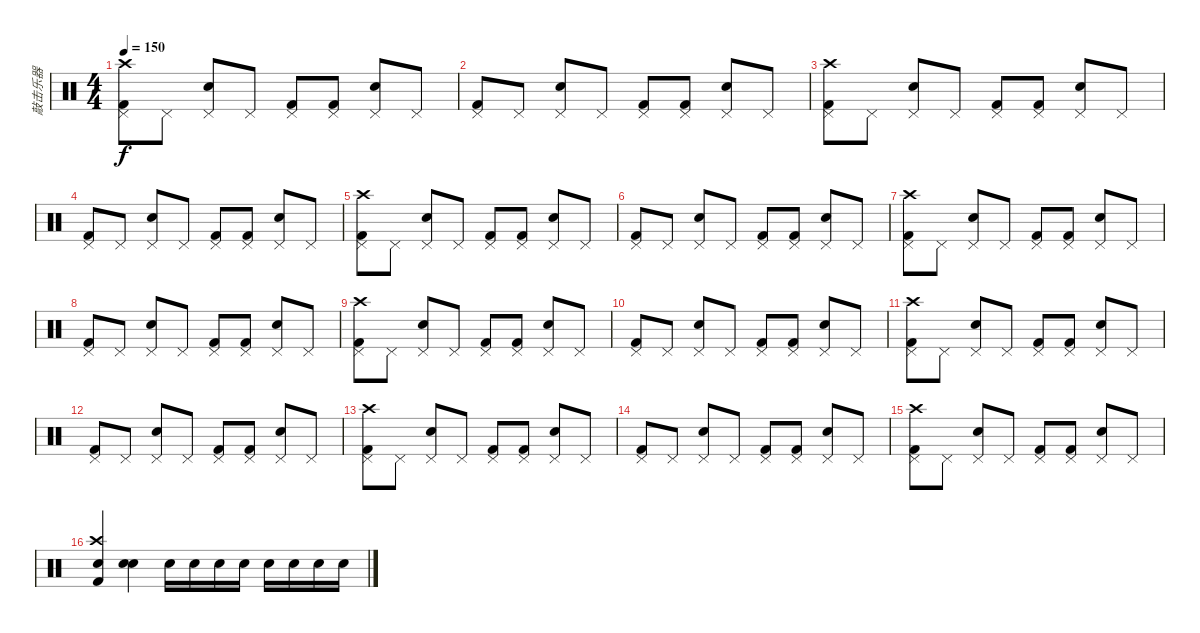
\track ("敲击乐器" "敲击乐器") {instrument percussion}
\staff {score}
\articulation defaults
\ts (4 4)
\tempo 150
\clef neutral
\ks c
("Kick (hit) 2" "Pedal Hi-Hat (hit)" "Crash high (hit)").8{dy f} "Pedal Hi-Hat (hit)".8 ("Snare (hit) 2" "Pedal Hi-Hat (hit)").8 "Pedal Hi-Hat (hit)".8 ("Kick (hit) 2" "Pedal Hi-Hat (hit)").8 ("Kick (hit) 2" "Pedal Hi-Hat (hit)").8 ("Snare (hit) 2" "Pedal Hi-Hat (hit)").8 "Pedal Hi-Hat (hit)".8 |
("Kick (hit) 2" "Pedal Hi-Hat (hit)").8 "Pedal Hi-Hat (hit)".8 ("Snare (hit) 2" "Pedal Hi-Hat (hit)").8 "Pedal Hi-Hat (hit)".8 ("Kick (hit) 2" "Pedal Hi-Hat (hit)").8 ("Kick (hit) 2" "Pedal Hi-Hat (hit)").8 ("Snare (hit) 2" "Pedal Hi-Hat (hit)").8 "Pedal Hi-Hat (hit)".8 |
("Kick (hit) 2" "Pedal Hi-Hat (hit)" "Crash high (hit)").8 "Pedal Hi-Hat (hit)".8 ("Snare (hit) 2" "Pedal Hi-Hat (hit)").8 "Pedal Hi-Hat (hit)".8 ("Kick (hit) 2" "Pedal Hi-Hat (hit)").8 ("Kick (hit) 2" "Pedal Hi-Hat (hit)").8 ("Snare (hit) 2" "Pedal Hi-Hat (hit)").8 "Pedal Hi-Hat (hit)".8 |
("Kick (hit) 2" "Pedal Hi-Hat (hit)").8 "Pedal Hi-Hat (hit)".8 ("Snare (hit) 2" "Pedal Hi-Hat (hit)").8 "Pedal Hi-Hat (hit)".8 ("Kick (hit) 2" "Pedal Hi-Hat (hit)").8 ("Kick (hit) 2" "Pedal Hi-Hat (hit)").8 ("Snare (hit) 2" "Pedal Hi-Hat (hit)").8 "Pedal Hi-Hat (hit)".8 |
("Kick (hit) 2" "Pedal Hi-Hat (hit)" "Crash high (hit)").8 "Pedal Hi-Hat (hit)".8 ("Snare (hit) 2" "Pedal Hi-Hat (hit)").8 "Pedal Hi-Hat (hit)".8 ("Kick (hit) 2" "Pedal Hi-Hat (hit)").8 ("Kick (hit) 2" "Pedal Hi-Hat (hit)").8 ("Snare (hit) 2" "Pedal Hi-Hat (hit)").8 "Pedal Hi-Hat (hit)".8 |
("Kick (hit) 2" "Pedal Hi-Hat (hit)").8 "Pedal Hi-Hat (hit)".8 ("Snare (hit) 2" "Pedal Hi-Hat (hit)").8 "Pedal Hi-Hat (hit)".8 ("Kick (hit) 2" "Pedal Hi-Hat (hit)").8 ("Kick (hit) 2" "Pedal Hi-Hat (hit)").8 ("Snare (hit) 2" "Pedal Hi-Hat (hit)").8 "Pedal Hi-Hat (hit)".8 |
("Kick (hit) 2" "Pedal Hi-Hat (hit)" "Crash high (hit)").8 "Pedal Hi-Hat (hit)".8 ("Snare (hit) 2" "Pedal Hi-Hat (hit)").8 "Pedal Hi-Hat (hit)".8 ("Kick (hit) 2" "Pedal Hi-Hat (hit)").8 ("Kick (hit) 2" "Pedal Hi-Hat (hit)").8 ("Snare (hit) 2" "Pedal Hi-Hat (hit)").8 "Pedal Hi-Hat (hit)".8 |
("Kick (hit) 2" "Pedal Hi-Hat (hit)").8 "Pedal Hi-Hat (hit)".8 ("Snare (hit) 2" "Pedal Hi-Hat (hit)").8 "Pedal Hi-Hat (hit)".8 ("Kick (hit) 2" "Pedal Hi-Hat (hit)").8 ("Kick (hit) 2" "Pedal Hi-Hat (hit)").8 ("Snare (hit) 2" "Pedal Hi-Hat (hit)").8 "Pedal Hi-Hat (hit)".8 |
("Kick (hit) 2" "Pedal Hi-Hat (hit)" "Crash high (hit)").8 "Pedal Hi-Hat (hit)".8 ("Snare (hit) 2" "Pedal Hi-Hat (hit)").8 "Pedal Hi-Hat (hit)".8 ("Kick (hit) 2" "Pedal Hi-Hat (hit)").8 ("Kick (hit) 2" "Pedal Hi-Hat (hit)").8 ("Snare (hit) 2" "Pedal Hi-Hat (hit)").8 "Pedal Hi-Hat (hit)".8 |
("Kick (hit) 2" "Pedal Hi-Hat (hit)").8 "Pedal Hi-Hat (hit)".8 ("Snare (hit) 2" "Pedal Hi-Hat (hit)").8 "Pedal Hi-Hat (hit)".8 ("Kick (hit) 2" "Pedal Hi-Hat (hit)").8 ("Kick (hit) 2" "Pedal Hi-Hat (hit)").8 ("Snare (hit) 2" "Pedal Hi-Hat (hit)").8 "Pedal Hi-Hat (hit)".8 |
("Kick (hit) 2" "Pedal Hi-Hat (hit)" "Crash high (hit)").8 "Pedal Hi-Hat (hit)".8 ("Snare (hit) 2" "Pedal Hi-Hat (hit)").8 "Pedal Hi-Hat (hit)".8 ("Kick (hit) 2" "Pedal Hi-Hat (hit)").8 ("Kick (hit) 2" "Pedal Hi-Hat (hit)").8 ("Snare (hit) 2" "Pedal Hi-Hat (hit)").8 "Pedal Hi-Hat (hit)".8 |
("Kick (hit) 2" "Pedal Hi-Hat (hit)").8 "Pedal Hi-Hat (hit)".8 ("Snare (hit) 2" "Pedal Hi-Hat (hit)").8 "Pedal Hi-Hat (hit)".8 ("Kick (hit) 2" "Pedal Hi-Hat (hit)").8 ("Kick (hit) 2" "Pedal Hi-Hat (hit)").8 ("Snare (hit) 2" "Pedal Hi-Hat (hit)").8 "Pedal Hi-Hat (hit)".8 |
("Kick (hit) 2" "Pedal Hi-Hat (hit)" "Crash high (hit)").8 "Pedal Hi-Hat (hit)".8 ("Snare (hit) 2" "Pedal Hi-Hat (hit)").8 "Pedal Hi-Hat (hit)".8 ("Kick (hit) 2" "Pedal Hi-Hat (hit)").8 ("Kick (hit) 2" "Pedal Hi-Hat (hit)").8 ("Snare (hit) 2" "Pedal Hi-Hat (hit)").8 "Pedal Hi-Hat (hit)".8 |
("Kick (hit) 2" "Pedal Hi-Hat (hit)").8 "Pedal Hi-Hat (hit)".8 ("Snare (hit) 2" "Pedal Hi-Hat (hit)").8 "Pedal Hi-Hat (hit)".8 ("Kick (hit) 2" "Pedal Hi-Hat (hit)").8 ("Kick (hit) 2" "Pedal Hi-Hat (hit)").8 ("Snare (hit) 2" "Pedal Hi-Hat (hit)").8 "Pedal Hi-Hat (hit)".8 |
("Kick (hit) 2" "Pedal Hi-Hat (hit)" "Crash high (hit)").8 "Pedal Hi-Hat (hit)".8 ("Snare (hit) 2" "Pedal Hi-Hat (hit)").8 "Pedal Hi-Hat (hit)".8 ("Kick (hit) 2" "Pedal Hi-Hat (hit)").8 ("Kick (hit) 2" "Pedal Hi-Hat (hit)").8 ("Snare (hit) 2" "Pedal Hi-Hat (hit)").8 "Pedal Hi-Hat (hit)".8 |
("Kick (hit) 2" "Electric Snare (hit)" "Crash high (hit)").4 ("Snare (hit) 2" "Electric Snare (hit)").4 "Electric Snare (hit)".16 "Electric Snare (hit)".16 "Electric Snare (hit)".16 "Electric Snare (hit)".16 "Electric Snare (hit)".16 "Electric Snare (hit)".16 "Electric Snare (hit)".16 "Electric Snare (hit)".16
